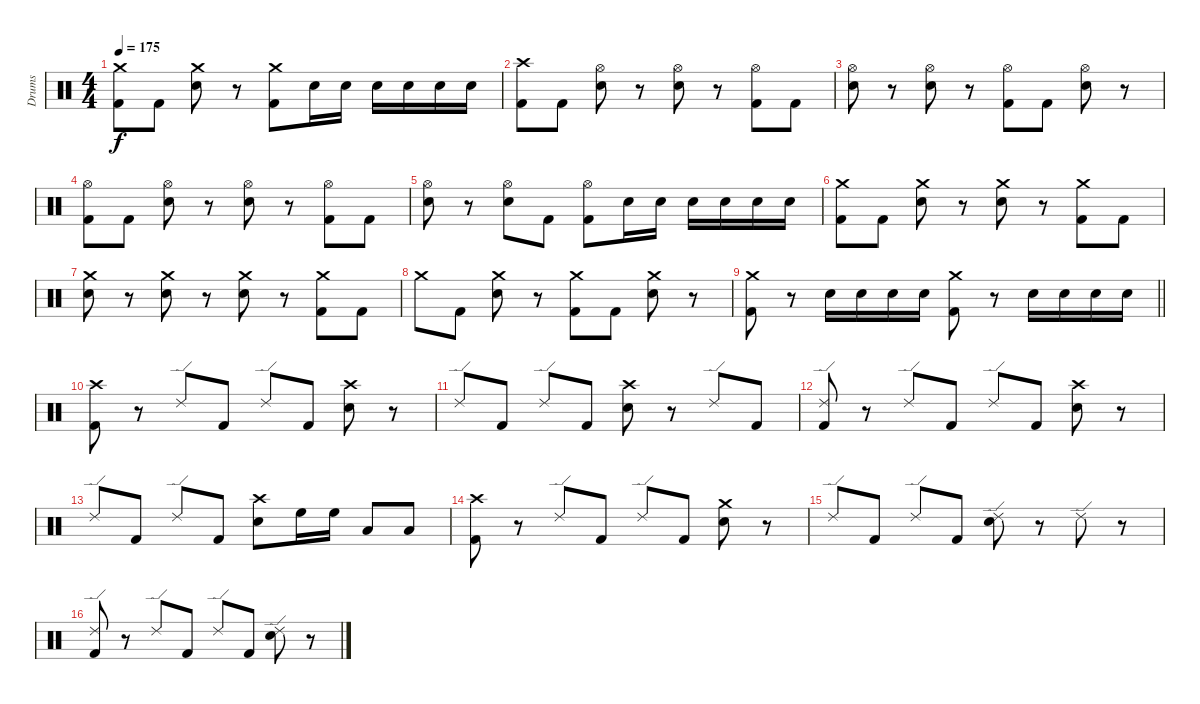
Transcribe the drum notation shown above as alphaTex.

\track ("Drums" "Drums") {instrument percussion}
\staff {score}
\articulation defaults
\ts (4 4)
\tempo 175
\clef neutral
\ks c
("Crash medium (hit)" "Kick (hit) 2").8{dy f} "Kick (hit) 2".8 ("Crash medium (hit)" "Snare (hit) 2").8 r.8 ("Crash medium (hit)" "Kick (hit) 2").8 "Snare (hit) 2".16 "Snare (hit) 2".16 "Snare (hit) 2".16 "Snare (hit) 2".16 "Snare (hit) 2".16 "Snare (hit) 2".16 |
("Crash high (hit)" "Kick (hit) 2").8 "Kick (hit) 2".8 ("Hi-Hat (open)" "Snare (hit) 2").8 r.8 ("Hi-Hat (open)" "Snare (hit) 2").8 r.8 ("Hi-Hat (open)" "Kick (hit) 2").8 "Kick (hit) 2".8 |
("Hi-Hat (open)" "Snare (hit) 2").8 r.8 ("Hi-Hat (open)" "Snare (hit) 2").8 r.8 ("Hi-Hat (open)" "Kick (hit) 2").8 "Kick (hit) 2".8 ("Hi-Hat (open)" "Snare (hit) 2").8 r.8 |
("Hi-Hat (open)" "Kick (hit) 2").8 "Kick (hit) 2".8 ("Hi-Hat (open)" "Snare (hit) 2").8 r.8 ("Hi-Hat (open)" "Snare (hit) 2").8 r.8 ("Hi-Hat (open)" "Kick (hit) 2").8 "Kick (hit) 2".8 |
("Hi-Hat (open)" "Snare (hit) 2").8 r.8 ("Hi-Hat (open)" "Snare (hit) 2").8 "Kick (hit) 2".8 ("Hi-Hat (open)" "Kick (hit) 2").8 "Snare (hit) 2".16 "Snare (hit) 2".16 "Snare (hit) 2".16 "Snare (hit) 2".16 "Snare (hit) 2".16 "Snare (hit) 2".16 |
("Crash medium (hit)" "Kick (hit) 2").8 "Kick (hit) 2".8 ("Crash medium (hit)" "Snare (hit) 2").8 r.8 ("Crash medium (hit)" "Snare (hit) 2").8 r.8 ("Crash medium (hit)" "Kick (hit) 2").8 "Kick (hit) 2".8 |
("Crash medium (hit)" "Snare (hit) 2").8 r.8 ("Crash medium (hit)" "Snare (hit) 2").8 r.8 ("Crash medium (hit)" "Snare (hit) 2").8 r.8 ("Crash medium (hit)" "Kick (hit) 2").8 "Kick (hit) 2".8 |
"Crash medium (hit)".8 "Kick (hit) 2".8 ("Crash medium (hit)" "Snare (hit) 2").8 r.8 ("Crash medium (hit)" "Kick (hit) 2").8 "Kick (hit) 2".8 ("Crash medium (hit)" "Snare (hit) 2").8 r.8 |
\barLineRight lightlight
("Crash medium (hit)" "Kick (hit) 2").8 r.8 "Snare (hit) 2".16 "Snare (hit) 2".16 "Snare (hit) 2".16 "Snare (hit) 2".16 ("Crash medium (hit)" "Kick (hit) 2").8 r.8 "Snare (hit) 2".16 "Snare (hit) 2".16 "Snare (hit) 2".16 "Snare (hit) 2".16 |
("Crash high (hit)" "Kick (hit) 2").8 r.8 "Ride (edge) 2".8 "Kick (hit) 2".8 "Ride (edge) 2".8 "Kick (hit) 2".8 ("Crash high (hit)" "Snare (hit) 2").8 r.8 |
"Ride (edge) 2".8 "Kick (hit) 2".8 "Ride (edge) 2".8 "Kick (hit) 2".8 ("Crash high (hit)" "Snare (hit) 2").8 r.8 "Ride (edge) 2".8 "Kick (hit) 2".8 |
("Ride (edge) 2" "Kick (hit) 2").8 r.8 "Ride (edge) 2".8 "Kick (hit) 2".8 "Ride (edge) 2".8 "Kick (hit) 2".8 ("Crash high (hit)" "Snare (hit) 2").8 r.8 |
"Ride (edge) 2".8 "Kick (hit) 2".8 "Ride (edge) 2".8 "Kick (hit) 2".8 ("Crash high (hit)" "Snare (hit) 2").8 "High Floor Tom (hit)".16 "High Floor Tom (hit)".16 "Low Floor Tom (hit)".8 "Low Floor Tom (hit)".8 |
("Crash high (hit)" "Kick (hit) 2").8 r.8 "Ride (edge) 2".8 "Kick (hit) 2".8 "Ride (edge) 2".8 "Kick (hit) 2".8 ("Crash medium (hit)" "Snare (hit) 2").8 r.8 |
"Ride (edge) 2".8 "Kick (hit) 2".8 "Ride (edge) 2".8 "Kick (hit) 2".8 ("Ride (edge) 2" "Snare (hit) 2").8 r.8 "Ride (edge) 2".8 r.8 |
("Ride (edge) 2" "Kick (hit) 2").8 r.8 "Ride (edge) 2".8 "Kick (hit) 2".8 "Ride (edge) 2".8 "Kick (hit) 2".8 ("Ride (edge) 2" "Snare (hit) 2").8 r.8
